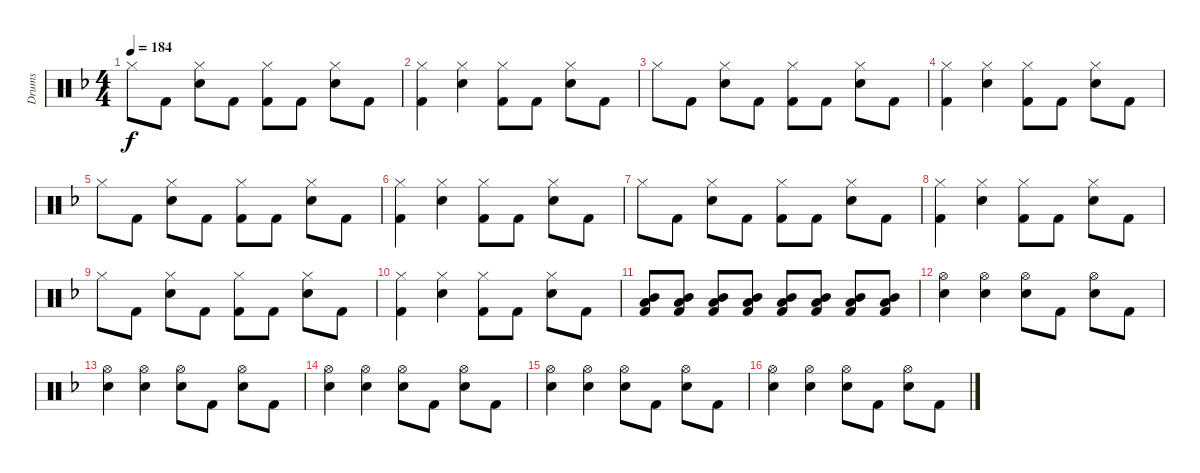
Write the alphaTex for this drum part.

\track ("Drums" "Drums") {instrument percussion}
\staff {score}
\articulation defaults
\ts (4 4)
\tempo 184
\clef neutral
\ks f "Hi-Hat (closed)".8{dy f} "Kick (hit) 2".8
("Hi-Hat (closed)" "Electric Snare (hit)").8 "Kick (hit) 2".8 ("Hi-Hat (closed)" "Kick (hit) 2").8 "Kick (hit) 2".8 ("Hi-Hat (closed)" "Electric Snare (hit)").8 "Kick (hit) 2".8 |
("Hi-Hat (closed)" "Kick (hit) 2").4 ("Hi-Hat (closed)" "Electric Snare (hit)").4 ("Hi-Hat (closed)" "Kick (hit) 2").8 "Kick (hit) 2".8 ("Hi-Hat (closed)" "Electric Snare (hit)").8 "Kick (hit) 2".8 |
"Hi-Hat (closed)".8 "Kick (hit) 2".8 ("Hi-Hat (closed)" "Electric Snare (hit)").8 "Kick (hit) 2".8 ("Hi-Hat (closed)" "Kick (hit) 2").8 "Kick (hit) 2".8 ("Hi-Hat (closed)" "Electric Snare (hit)").8 "Kick (hit) 2".8 |
("Hi-Hat (closed)" "Kick (hit) 2").4 ("Hi-Hat (closed)" "Electric Snare (hit)").4 ("Hi-Hat (closed)" "Kick (hit) 2").8 "Kick (hit) 2".8 ("Hi-Hat (closed)" "Electric Snare (hit)").8 "Kick (hit) 2".8 |
"Hi-Hat (closed)".8 "Kick (hit) 2".8 ("Hi-Hat (closed)" "Electric Snare (hit)").8 "Kick (hit) 2".8 ("Hi-Hat (closed)" "Kick (hit) 2").8 "Kick (hit) 2".8 ("Hi-Hat (closed)" "Electric Snare (hit)").8 "Kick (hit) 2".8 |
("Hi-Hat (closed)" "Kick (hit) 2").4 ("Hi-Hat (closed)" "Electric Snare (hit)").4 ("Hi-Hat (closed)" "Kick (hit) 2").8 "Kick (hit) 2".8 ("Hi-Hat (closed)" "Electric Snare (hit)").8 "Kick (hit) 2".8 |
"Hi-Hat (closed)".8 "Kick (hit) 2".8 ("Hi-Hat (closed)" "Electric Snare (hit)").8 "Kick (hit) 2".8 ("Hi-Hat (closed)" "Kick (hit) 2").8 "Kick (hit) 2".8 ("Hi-Hat (closed)" "Electric Snare (hit)").8 "Kick (hit) 2".8 |
("Hi-Hat (closed)" "Kick (hit) 2").4 ("Hi-Hat (closed)" "Electric Snare (hit)").4 ("Hi-Hat (closed)" "Kick (hit) 2").8 "Kick (hit) 2".8 ("Hi-Hat (closed)" "Electric Snare (hit)").8 "Kick (hit) 2".8 |
"Hi-Hat (closed)".8 "Kick (hit) 2".8 ("Hi-Hat (closed)" "Electric Snare (hit)").8 "Kick (hit) 2".8 ("Hi-Hat (closed)" "Kick (hit) 2").8 "Kick (hit) 2".8 ("Hi-Hat (closed)" "Electric Snare (hit)").8 "Kick (hit) 2".8 |
("Hi-Hat (closed)" "Kick (hit) 2").4 ("Hi-Hat (closed)" "Electric Snare (hit)").4 ("Hi-Hat (closed)" "Kick (hit) 2").8 "Kick (hit) 2".8 ("Hi-Hat (closed)" "Electric Snare (hit)").8 "Kick (hit) 2".8 |
("Mid Tom (hit)" "Low Tom (hit)" "Kick (hit) 2").8 ("Mid Tom (hit)" "Low Tom (hit)" "Kick (hit) 2").8 ("Mid Tom (hit)" "Low Tom (hit)" "Kick (hit) 2").8 ("Mid Tom (hit)" "Low Tom (hit)" "Kick (hit) 2").8 ("Mid Tom (hit)" "Low Tom (hit)" "Kick (hit) 2").8 ("Mid Tom (hit)" "Low Tom (hit)" "Kick (hit) 2").8 ("Mid Tom (hit)" "Low Tom (hit)" "Kick (hit) 2").8 ("Mid Tom (hit)" "Low Tom (hit)" "Kick (hit) 2").8 |
("Hi-Hat (open)" "Electric Snare (hit)").4 ("Hi-Hat (open)" "Electric Snare (hit)").4 ("Hi-Hat (open)" "Electric Snare (hit)").8 "Kick (hit) 2".8 ("Hi-Hat (open)" "Electric Snare (hit)").8 "Kick (hit) 2".8 |
("Hi-Hat (open)" "Electric Snare (hit)").4 ("Hi-Hat (open)" "Electric Snare (hit)").4 ("Hi-Hat (open)" "Electric Snare (hit)").8 "Kick (hit) 2".8 ("Hi-Hat (open)" "Electric Snare (hit)").8 "Kick (hit) 2".8 |
("Hi-Hat (open)" "Electric Snare (hit)").4 ("Hi-Hat (open)" "Electric Snare (hit)").4 ("Hi-Hat (open)" "Electric Snare (hit)").8 "Kick (hit) 2".8 ("Hi-Hat (open)" "Electric Snare (hit)").8 "Kick (hit) 2".8 |
("Hi-Hat (open)" "Electric Snare (hit)").4 ("Hi-Hat (open)" "Electric Snare (hit)").4 ("Hi-Hat (open)" "Electric Snare (hit)").8 "Kick (hit) 2".8 ("Hi-Hat (open)" "Electric Snare (hit)").8 "Kick (hit) 2".8 |
("Hi-Hat (open)" "Electric Snare (hit)").4 ("Hi-Hat (open)" "Electric Snare (hit)").4 ("Hi-Hat (open)" "Electric Snare (hit)").8 "Kick (hit) 2".8 ("Hi-Hat (open)" "Electric Snare (hit)").8 "Kick (hit) 2".8
